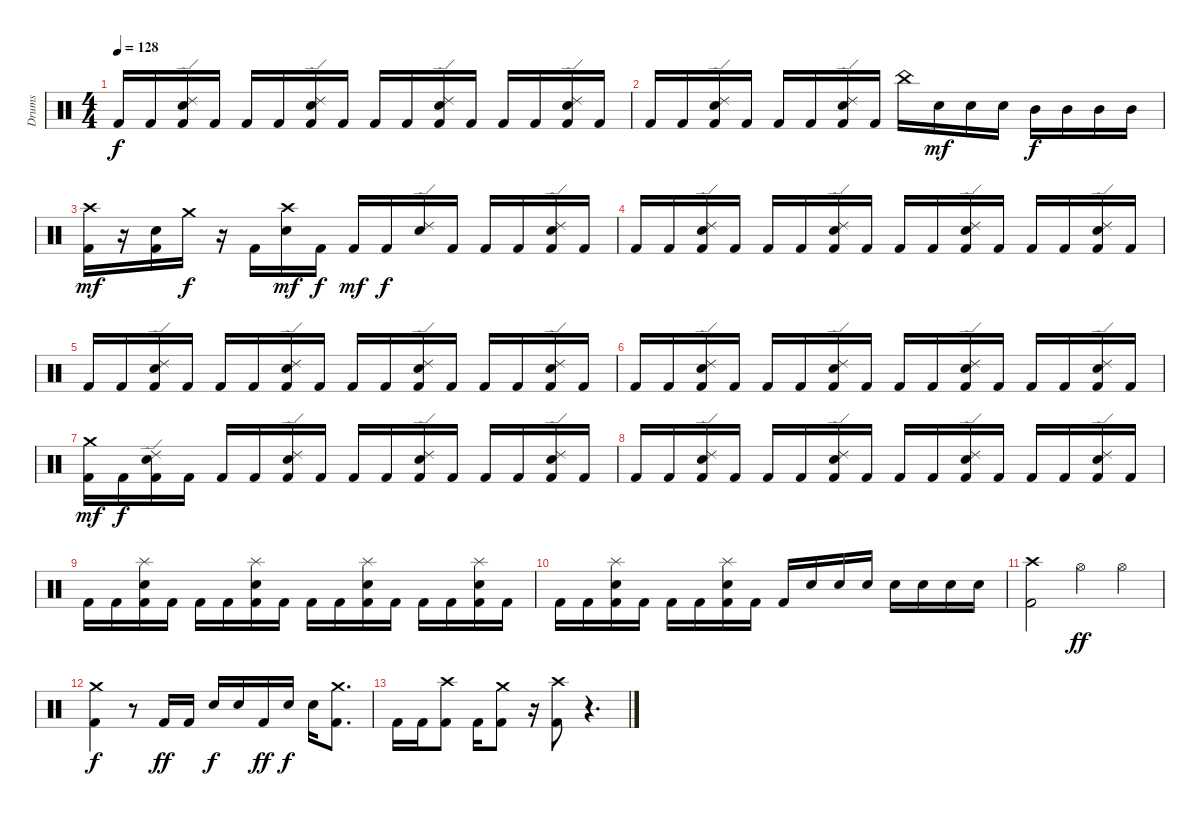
\track ("Drums" "Drums") {instrument percussion}
\staff {score}
\articulation defaults
\ts (4 4)
\tempo 128
\clef neutral
\ks c "Kick (hit) 2".16{dy f} "Kick (hit) 2".16
("Ride (edge) 2" "Snare (hit) 2" "Kick (hit) 2").16 "Kick (hit) 2".16 "Kick (hit) 2".16 "Kick (hit) 2".16 ("Ride (edge) 2" "Snare (hit) 2" "Kick (hit) 2").16 "Kick (hit) 2".16 "Kick (hit) 2".16 "Kick (hit) 2".16 ("Ride (edge) 2" "Snare (hit) 2" "Kick (hit) 2").16 "Kick (hit) 2".16 "Kick (hit) 2".16 "Kick (hit) 2".16 ("Ride (edge) 2" "Snare (hit) 2" "Kick (hit) 2").16 "Kick (hit) 2".16 |
"Kick (hit) 2".16 "Kick (hit) 2".16 ("Ride (edge) 2" "Snare (hit) 2" "Kick (hit) 2").16 "Kick (hit) 2".16 "Kick (hit) 2".16 "Kick (hit) 2".16 ("Ride (edge) 2" "Snare (hit) 2" "Kick (hit) 2").16 "Kick (hit) 2".16 "China (hit)".16 "Snare (hit) 2".16{dy mf} "Snare (hit) 2".16 "Snare (hit) 2".16 "Mid Tom (hit)".16{dy f} "Mid Tom (hit)".16 "Mid Tom (hit)".16 "Mid Tom (hit)".16 |
("Crash high (hit)" "Kick (hit) 2").16{dy mf} r.16 ("Snare (hit) 2" "Kick (hit) 2").16 "Crash medium (hit)".16{dy f} r.16 "Kick (hit) 2".16 ("Crash high (hit)" "Snare (hit) 2").16{dy mf} "Kick (hit) 2".16{dy f} "Kick (hit) 2".16{dy mf} "Kick (hit) 2".16{dy f} ("Ride (edge) 2" "Snare (hit) 2").16 "Kick (hit) 2".16 "Kick (hit) 2".16 "Kick (hit) 2".16 ("Ride (edge) 2" "Snare (hit) 2" "Kick (hit) 2").16 "Kick (hit) 2".16 |
"Kick (hit) 2".16 "Kick (hit) 2".16 ("Ride (edge) 2" "Snare (hit) 2" "Kick (hit) 2").16 "Kick (hit) 2".16 "Kick (hit) 2".16 "Kick (hit) 2".16 ("Ride (edge) 2" "Snare (hit) 2" "Kick (hit) 2").16 "Kick (hit) 2".16 "Kick (hit) 2".16 "Kick (hit) 2".16 ("Ride (edge) 2" "Snare (hit) 2" "Kick (hit) 2").16 "Kick (hit) 2".16 "Kick (hit) 2".16 "Kick (hit) 2".16 ("Ride (edge) 2" "Snare (hit) 2" "Kick (hit) 2").16 "Kick (hit) 2".16 |
"Kick (hit) 2".16 "Kick (hit) 2".16 ("Ride (edge) 2" "Snare (hit) 2" "Kick (hit) 2").16 "Kick (hit) 2".16 "Kick (hit) 2".16 "Kick (hit) 2".16 ("Ride (edge) 2" "Snare (hit) 2" "Kick (hit) 2").16 "Kick (hit) 2".16 "Kick (hit) 2".16 "Kick (hit) 2".16 ("Ride (edge) 2" "Snare (hit) 2" "Kick (hit) 2").16 "Kick (hit) 2".16 "Kick (hit) 2".16 "Kick (hit) 2".16 ("Ride (edge) 2" "Snare (hit) 2" "Kick (hit) 2").16 "Kick (hit) 2".16 |
"Kick (hit) 2".16 "Kick (hit) 2".16 ("Ride (edge) 2" "Snare (hit) 2" "Kick (hit) 2").16 "Kick (hit) 2".16 "Kick (hit) 2".16 "Kick (hit) 2".16 ("Ride (edge) 2" "Snare (hit) 2" "Kick (hit) 2").16 "Kick (hit) 2".16 "Kick (hit) 2".16 "Kick (hit) 2".16 ("Ride (edge) 2" "Snare (hit) 2" "Kick (hit) 2").16 "Kick (hit) 2".16 "Kick (hit) 2".16 "Kick (hit) 2".16 ("Ride (edge) 2" "Snare (hit) 2" "Kick (hit) 2").16 "Kick (hit) 2".16 |
("Crash medium (hit)" "Kick (hit) 2").16{dy mf} "Kick (hit) 2".16{dy f} ("Ride (edge) 2" "Snare (hit) 2" "Kick (hit) 2").16 "Kick (hit) 2".16 "Kick (hit) 2".16 "Kick (hit) 2".16 ("Ride (edge) 2" "Snare (hit) 2" "Kick (hit) 2").16 "Kick (hit) 2".16 "Kick (hit) 2".16 "Kick (hit) 2".16 ("Ride (edge) 2" "Snare (hit) 2" "Kick (hit) 2").16 "Kick (hit) 2".16 "Kick (hit) 2".16 "Kick (hit) 2".16 ("Ride (edge) 2" "Snare (hit) 2" "Kick (hit) 2").16 "Kick (hit) 2".16 |
"Kick (hit) 2".16 "Kick (hit) 2".16 ("Ride (edge) 2" "Snare (hit) 2" "Kick (hit) 2").16 "Kick (hit) 2".16 "Kick (hit) 2".16 "Kick (hit) 2".16 ("Ride (edge) 2" "Snare (hit) 2" "Kick (hit) 2").16 "Kick (hit) 2".16 "Kick (hit) 2".16 "Kick (hit) 2".16 ("Ride (edge) 2" "Snare (hit) 2" "Kick (hit) 2").16 "Kick (hit) 2".16 "Kick (hit) 2".16 "Kick (hit) 2".16 ("Ride (edge) 2" "Snare (hit) 2" "Kick (hit) 2").16 "Kick (hit) 2".16 |
"Kick (hit) 2".16 "Kick (hit) 2".16 ("Splash (hit)" "Snare (hit) 2" "Kick (hit) 2").16 "Kick (hit) 2".16 "Kick (hit) 2".16 "Kick (hit) 2".16 ("Splash (hit)" "Snare (hit) 2" "Kick (hit) 2").16 "Kick (hit) 2".16 "Kick (hit) 2".16 "Kick (hit) 2".16 ("Splash (hit)" "Snare (hit) 2" "Kick (hit) 2").16 "Kick (hit) 2".16 "Kick (hit) 2".16 "Kick (hit) 2".16 ("Splash (hit)" "Snare (hit) 2" "Kick (hit) 2").16 "Kick (hit) 2".16 |
"Kick (hit) 2".16 "Kick (hit) 2".16 ("Splash (hit)" "Snare (hit) 2" "Kick (hit) 2").16 "Kick (hit) 2".16 "Kick (hit) 2".16 "Kick (hit) 2".16 ("Splash (hit)" "Snare (hit) 2" "Kick (hit) 2").16 "Kick (hit) 2".16 "Kick (hit) 2".16 "Snare (hit) 2".16 "Snare (hit) 2".16 "Snare (hit) 2".16 "Snare (hit) 2".16 "Snare (hit) 2".16 "Snare (hit) 2".16 "Snare (hit) 2".16 |
("Crash high (hit)" "Kick (hit) 2").2 "Hi-Hat (open)".4{dy ff} "Hi-Hat (open)".4 |
("Crash medium (hit)" "Kick (hit) 2").4{dy f} r.8 "Kick (hit) 2".16{dy ff} "Kick (hit) 2".16 "Snare (hit) 2".16{dy f} "Snare (hit) 2".16 "Kick (hit) 2".16{dy ff} "Snare (hit) 2".16{dy f} "Snare (hit) 2".16 ("Crash medium (hit)" "Kick (hit) 2").8{d} |
"Kick (hit) 2".16 "Kick (hit) 2".16 ("Crash high (hit)" "Kick (hit) 2").8 "Kick (hit) 2".16 ("Crash medium (hit)" "Kick (hit) 2").8 r.16 ("Crash high (hit)" "Kick (hit) 2").8 r.4{d}
